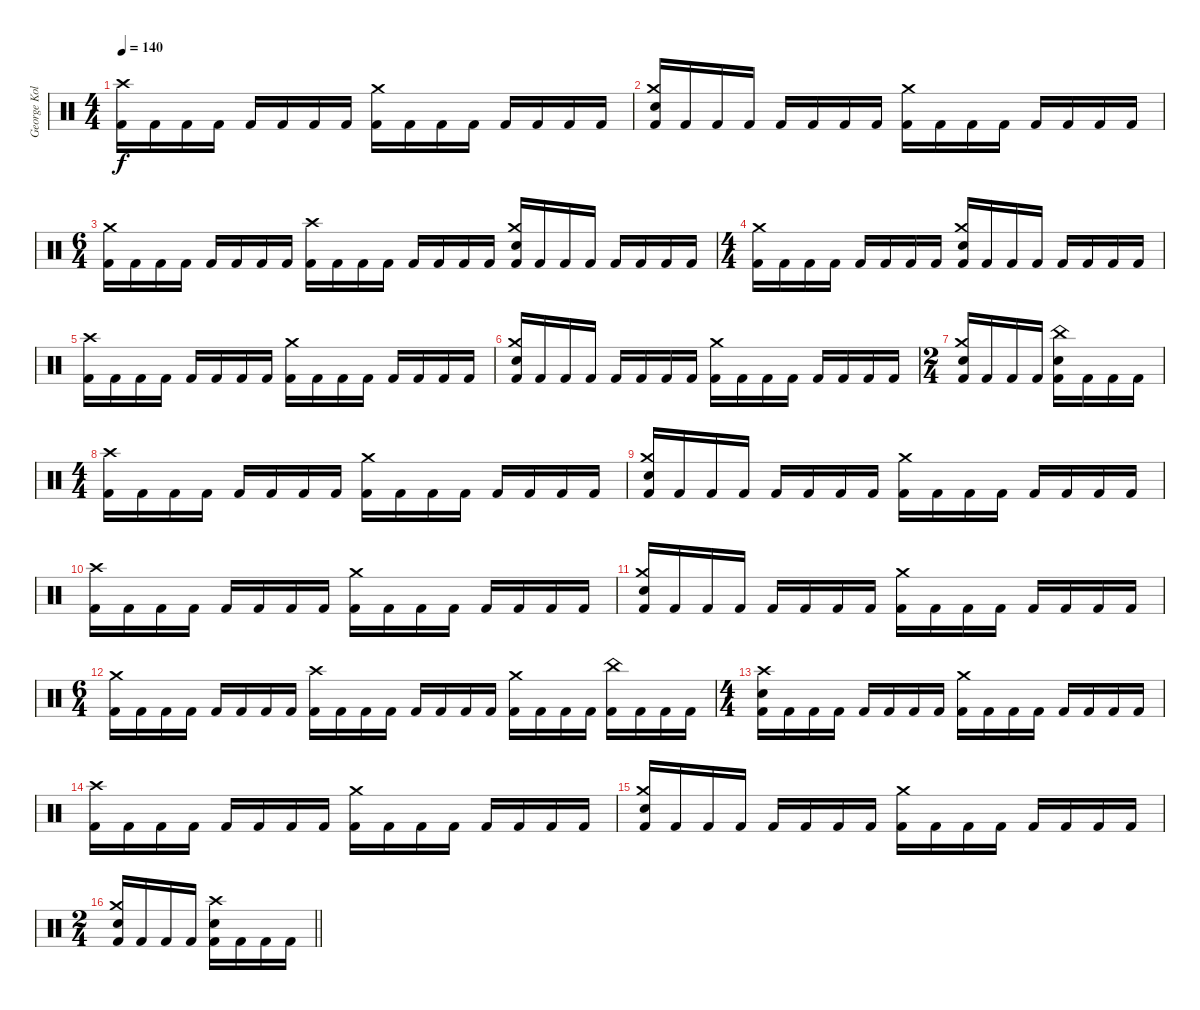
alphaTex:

\track ("George Kollias" "George Kol") {instrument percussion}
\staff {score}
\articulation defaults
\ts (4 4)
\tempo 140
\clef neutral
\ks c
("Crash high (hit)" "Kick (hit) 2").16{dy f} "Kick (hit) 2".16 "Kick (hit) 2".16 "Kick (hit) 2".16 "Kick (hit) 2".16 "Kick (hit) 2".16 "Kick (hit) 2".16 "Kick (hit) 2".16 ("Crash medium (hit)" "Kick (hit) 2").16 "Kick (hit) 2".16 "Kick (hit) 2".16 "Kick (hit) 2".16 "Kick (hit) 2".16 "Kick (hit) 2".16 "Kick (hit) 2".16 "Kick (hit) 2".16 |
("Crash medium (hit)" "Electric Snare (hit)" "Kick (hit) 2").16 "Kick (hit) 2".16 "Kick (hit) 2".16 "Kick (hit) 2".16 "Kick (hit) 2".16 "Kick (hit) 2".16 "Kick (hit) 2".16 "Kick (hit) 2".16 ("Crash medium (hit)" "Kick (hit) 2").16 "Kick (hit) 2".16 "Kick (hit) 2".16 "Kick (hit) 2".16 "Kick (hit) 2".16 "Kick (hit) 2".16 "Kick (hit) 2".16 "Kick (hit) 2".16 |
\ts (6 4)
("Crash medium (hit)" "Kick (hit) 2").16 "Kick (hit) 2".16 "Kick (hit) 2".16 "Kick (hit) 2".16 "Kick (hit) 2".16 "Kick (hit) 2".16 "Kick (hit) 2".16 "Kick (hit) 2".16 ("Crash high (hit)" "Kick (hit) 2").16 "Kick (hit) 2".16 "Kick (hit) 2".16 "Kick (hit) 2".16 "Kick (hit) 2".16 "Kick (hit) 2".16 "Kick (hit) 2".16 "Kick (hit) 2".16 ("Crash medium (hit)" "Electric Snare (hit)" "Kick (hit) 2").16 "Kick (hit) 2".16 "Kick (hit) 2".16 "Kick (hit) 2".16 "Kick (hit) 2".16 "Kick (hit) 2".16 "Kick (hit) 2".16 "Kick (hit) 2".16 |
\ts (4 4)
("Crash medium (hit)" "Kick (hit) 2").16 "Kick (hit) 2".16 "Kick (hit) 2".16 "Kick (hit) 2".16 "Kick (hit) 2".16 "Kick (hit) 2".16 "Kick (hit) 2".16 "Kick (hit) 2".16 ("Crash medium (hit)" "Electric Snare (hit)" "Kick (hit) 2").16 "Kick (hit) 2".16 "Kick (hit) 2".16 "Kick (hit) 2".16 "Kick (hit) 2".16 "Kick (hit) 2".16 "Kick (hit) 2".16 "Kick (hit) 2".16 |
("Crash high (hit)" "Kick (hit) 2").16 "Kick (hit) 2".16 "Kick (hit) 2".16 "Kick (hit) 2".16 "Kick (hit) 2".16 "Kick (hit) 2".16 "Kick (hit) 2".16 "Kick (hit) 2".16 ("Crash medium (hit)" "Kick (hit) 2").16 "Kick (hit) 2".16 "Kick (hit) 2".16 "Kick (hit) 2".16 "Kick (hit) 2".16 "Kick (hit) 2".16 "Kick (hit) 2".16 "Kick (hit) 2".16 |
("Crash medium (hit)" "Electric Snare (hit)" "Kick (hit) 2").16 "Kick (hit) 2".16 "Kick (hit) 2".16 "Kick (hit) 2".16 "Kick (hit) 2".16 "Kick (hit) 2".16 "Kick (hit) 2".16 "Kick (hit) 2".16 ("Crash medium (hit)" "Kick (hit) 2").16 "Kick (hit) 2".16 "Kick (hit) 2".16 "Kick (hit) 2".16 "Kick (hit) 2".16 "Kick (hit) 2".16 "Kick (hit) 2".16 "Kick (hit) 2".16 |
\ts (2 4)
("Crash medium (hit)" "Electric Snare (hit)" "Kick (hit) 2").16 "Kick (hit) 2".16 "Kick (hit) 2".16 "Kick (hit) 2".16 ("China (hit)" "Electric Snare (hit)" "Kick (hit) 2").16 "Kick (hit) 2".16 "Kick (hit) 2".16 "Kick (hit) 2".16 |
\ts (4 4)
("Crash high (hit)" "Kick (hit) 2").16 "Kick (hit) 2".16 "Kick (hit) 2".16 "Kick (hit) 2".16 "Kick (hit) 2".16 "Kick (hit) 2".16 "Kick (hit) 2".16 "Kick (hit) 2".16 ("Crash medium (hit)" "Kick (hit) 2").16 "Kick (hit) 2".16 "Kick (hit) 2".16 "Kick (hit) 2".16 "Kick (hit) 2".16 "Kick (hit) 2".16 "Kick (hit) 2".16 "Kick (hit) 2".16 |
("Crash medium (hit)" "Electric Snare (hit)" "Kick (hit) 2").16 "Kick (hit) 2".16 "Kick (hit) 2".16 "Kick (hit) 2".16 "Kick (hit) 2".16 "Kick (hit) 2".16 "Kick (hit) 2".16 "Kick (hit) 2".16 ("Crash medium (hit)" "Kick (hit) 2").16 "Kick (hit) 2".16 "Kick (hit) 2".16 "Kick (hit) 2".16 "Kick (hit) 2".16 "Kick (hit) 2".16 "Kick (hit) 2".16 "Kick (hit) 2".16 |
("Crash high (hit)" "Kick (hit) 2").16 "Kick (hit) 2".16 "Kick (hit) 2".16 "Kick (hit) 2".16 "Kick (hit) 2".16 "Kick (hit) 2".16 "Kick (hit) 2".16 "Kick (hit) 2".16 ("Crash medium (hit)" "Kick (hit) 2").16 "Kick (hit) 2".16 "Kick (hit) 2".16 "Kick (hit) 2".16 "Kick (hit) 2".16 "Kick (hit) 2".16 "Kick (hit) 2".16 "Kick (hit) 2".16 |
("Crash medium (hit)" "Electric Snare (hit)" "Kick (hit) 2").16 "Kick (hit) 2".16 "Kick (hit) 2".16 "Kick (hit) 2".16 "Kick (hit) 2".16 "Kick (hit) 2".16 "Kick (hit) 2".16 "Kick (hit) 2".16 ("Crash medium (hit)" "Kick (hit) 2").16 "Kick (hit) 2".16 "Kick (hit) 2".16 "Kick (hit) 2".16 "Kick (hit) 2".16 "Kick (hit) 2".16 "Kick (hit) 2".16 "Kick (hit) 2".16 |
\ts (6 4)
("Crash medium (hit)" "Kick (hit) 2").16 "Kick (hit) 2".16 "Kick (hit) 2".16 "Kick (hit) 2".16 "Kick (hit) 2".16 "Kick (hit) 2".16 "Kick (hit) 2".16 "Kick (hit) 2".16 ("Crash high (hit)" "Kick (hit) 2").16 "Kick (hit) 2".16 "Kick (hit) 2".16 "Kick (hit) 2".16 "Kick (hit) 2".16 "Kick (hit) 2".16 "Kick (hit) 2".16 "Kick (hit) 2".16 ("Crash medium (hit)" "Kick (hit) 2").16 "Kick (hit) 2".16 "Kick (hit) 2".16 "Kick (hit) 2".16 ("China (hit)" "Kick (hit) 2").16 "Kick (hit) 2".16 "Kick (hit) 2".16 "Kick (hit) 2".16 |
\ts (4 4)
("Crash high (hit)" "Electric Snare (hit)" "Kick (hit) 2").16 "Kick (hit) 2".16 "Kick (hit) 2".16 "Kick (hit) 2".16 "Kick (hit) 2".16 "Kick (hit) 2".16 "Kick (hit) 2".16 "Kick (hit) 2".16 ("Crash medium (hit)" "Kick (hit) 2").16 "Kick (hit) 2".16 "Kick (hit) 2".16 "Kick (hit) 2".16 "Kick (hit) 2".16 "Kick (hit) 2".16 "Kick (hit) 2".16 "Kick (hit) 2".16 |
("Crash high (hit)" "Kick (hit) 2").16 "Kick (hit) 2".16 "Kick (hit) 2".16 "Kick (hit) 2".16 "Kick (hit) 2".16 "Kick (hit) 2".16 "Kick (hit) 2".16 "Kick (hit) 2".16 ("Crash medium (hit)" "Kick (hit) 2").16 "Kick (hit) 2".16 "Kick (hit) 2".16 "Kick (hit) 2".16 "Kick (hit) 2".16 "Kick (hit) 2".16 "Kick (hit) 2".16 "Kick (hit) 2".16 |
("Crash medium (hit)" "Electric Snare (hit)" "Kick (hit) 2").16 "Kick (hit) 2".16 "Kick (hit) 2".16 "Kick (hit) 2".16 "Kick (hit) 2".16 "Kick (hit) 2".16 "Kick (hit) 2".16 "Kick (hit) 2".16 ("Crash medium (hit)" "Kick (hit) 2").16 "Kick (hit) 2".16 "Kick (hit) 2".16 "Kick (hit) 2".16 "Kick (hit) 2".16 "Kick (hit) 2".16 "Kick (hit) 2".16 "Kick (hit) 2".16 |
\ts (2 4)
\barLineRight lightlight
("Crash medium (hit)" "Electric Snare (hit)" "Kick (hit) 2").16 "Kick (hit) 2".16 "Kick (hit) 2".16 "Kick (hit) 2".16 ("Crash high (hit)" "Electric Snare (hit)" "Kick (hit) 2").16 "Kick (hit) 2".16 "Kick (hit) 2".16 "Kick (hit) 2".16
